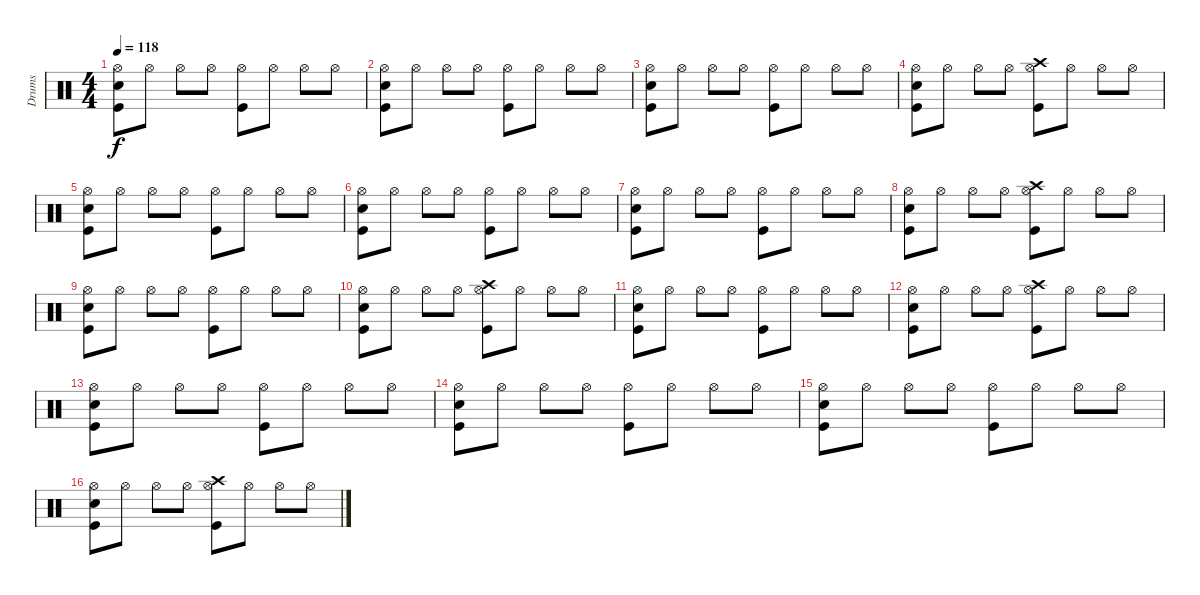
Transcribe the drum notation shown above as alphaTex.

\track ("Drums" "Drums") {instrument percussion}
\staff {score}
\articulation defaults
\ts (4 4)
\tempo 118
\clef neutral
\ks c
("Kick (hit)" "Snare (hit) 2" "Hi-Hat (open)").8{dy f} "Hi-Hat (open)".8 "Hi-Hat (open)".8 "Hi-Hat (open)".8 ("Kick (hit)" "Hi-Hat (open)").8 "Hi-Hat (open)".8 "Hi-Hat (open)".8 "Hi-Hat (open)".8 |
("Kick (hit)" "Snare (hit) 2" "Hi-Hat (open)").8 "Hi-Hat (open)".8 "Hi-Hat (open)".8 "Hi-Hat (open)".8 ("Kick (hit)" "Hi-Hat (open)").8 "Hi-Hat (open)".8 "Hi-Hat (open)".8 "Hi-Hat (open)".8 |
("Kick (hit)" "Snare (hit) 2" "Hi-Hat (open)").8 "Hi-Hat (open)".8 "Hi-Hat (open)".8 "Hi-Hat (open)".8 ("Kick (hit)" "Hi-Hat (open)").8 "Hi-Hat (open)".8 "Hi-Hat (open)".8 "Hi-Hat (open)".8 |
("Kick (hit)" "Snare (hit) 2" "Hi-Hat (open)").8 "Hi-Hat (open)".8 "Hi-Hat (open)".8 "Hi-Hat (open)".8 ("Kick (hit)" "Hi-Hat (open)" "Crash high (hit)").8 "Hi-Hat (open)".8 "Hi-Hat (open)".8 "Hi-Hat (open)".8 |
("Kick (hit)" "Snare (hit) 2" "Hi-Hat (open)").8 "Hi-Hat (open)".8 "Hi-Hat (open)".8 "Hi-Hat (open)".8 ("Kick (hit)" "Hi-Hat (open)").8 "Hi-Hat (open)".8 "Hi-Hat (open)".8 "Hi-Hat (open)".8 |
("Kick (hit)" "Snare (hit) 2" "Hi-Hat (open)").8 "Hi-Hat (open)".8 "Hi-Hat (open)".8 "Hi-Hat (open)".8 ("Kick (hit)" "Hi-Hat (open)").8 "Hi-Hat (open)".8 "Hi-Hat (open)".8 "Hi-Hat (open)".8 |
("Kick (hit)" "Snare (hit) 2" "Hi-Hat (open)").8 "Hi-Hat (open)".8 "Hi-Hat (open)".8 "Hi-Hat (open)".8 ("Kick (hit)" "Hi-Hat (open)").8 "Hi-Hat (open)".8 "Hi-Hat (open)".8 "Hi-Hat (open)".8 |
("Kick (hit)" "Snare (hit) 2" "Hi-Hat (open)").8 "Hi-Hat (open)".8 "Hi-Hat (open)".8 "Hi-Hat (open)".8 ("Kick (hit)" "Hi-Hat (open)" "Crash high (hit)").8 "Hi-Hat (open)".8 "Hi-Hat (open)".8 "Hi-Hat (open)".8 |
("Kick (hit)" "Snare (hit) 2" "Hi-Hat (open)").8 "Hi-Hat (open)".8 "Hi-Hat (open)".8 "Hi-Hat (open)".8 ("Kick (hit)" "Hi-Hat (open)").8 "Hi-Hat (open)".8 "Hi-Hat (open)".8 "Hi-Hat (open)".8 |
("Kick (hit)" "Snare (hit) 2" "Hi-Hat (open)").8 "Hi-Hat (open)".8 "Hi-Hat (open)".8 "Hi-Hat (open)".8 ("Kick (hit)" "Hi-Hat (open)" "Crash high (hit)").8 "Hi-Hat (open)".8 "Hi-Hat (open)".8 "Hi-Hat (open)".8 |
("Kick (hit)" "Snare (hit) 2" "Hi-Hat (open)").8 "Hi-Hat (open)".8 "Hi-Hat (open)".8 "Hi-Hat (open)".8 ("Kick (hit)" "Hi-Hat (open)").8 "Hi-Hat (open)".8 "Hi-Hat (open)".8 "Hi-Hat (open)".8 |
("Kick (hit)" "Snare (hit) 2" "Hi-Hat (open)").8 "Hi-Hat (open)".8 "Hi-Hat (open)".8 "Hi-Hat (open)".8 ("Kick (hit)" "Hi-Hat (open)" "Crash high (hit)").8 "Hi-Hat (open)".8 "Hi-Hat (open)".8 "Hi-Hat (open)".8 |
("Kick (hit)" "Snare (hit) 2" "Hi-Hat (open)").8 "Hi-Hat (open)".8 "Hi-Hat (open)".8 "Hi-Hat (open)".8 ("Kick (hit)" "Hi-Hat (open)").8 "Hi-Hat (open)".8 "Hi-Hat (open)".8 "Hi-Hat (open)".8 |
("Kick (hit)" "Snare (hit) 2" "Hi-Hat (open)").8 "Hi-Hat (open)".8 "Hi-Hat (open)".8 "Hi-Hat (open)".8 ("Kick (hit)" "Hi-Hat (open)").8 "Hi-Hat (open)".8 "Hi-Hat (open)".8 "Hi-Hat (open)".8 |
("Kick (hit)" "Snare (hit) 2" "Hi-Hat (open)").8 "Hi-Hat (open)".8 "Hi-Hat (open)".8 "Hi-Hat (open)".8 ("Kick (hit)" "Hi-Hat (open)").8 "Hi-Hat (open)".8 "Hi-Hat (open)".8 "Hi-Hat (open)".8 |
("Kick (hit)" "Snare (hit) 2" "Hi-Hat (open)").8 "Hi-Hat (open)".8 "Hi-Hat (open)".8 "Hi-Hat (open)".8 ("Kick (hit)" "Hi-Hat (open)" "Crash high (hit)").8 "Hi-Hat (open)".8 "Hi-Hat (open)".8 "Hi-Hat (open)".8
